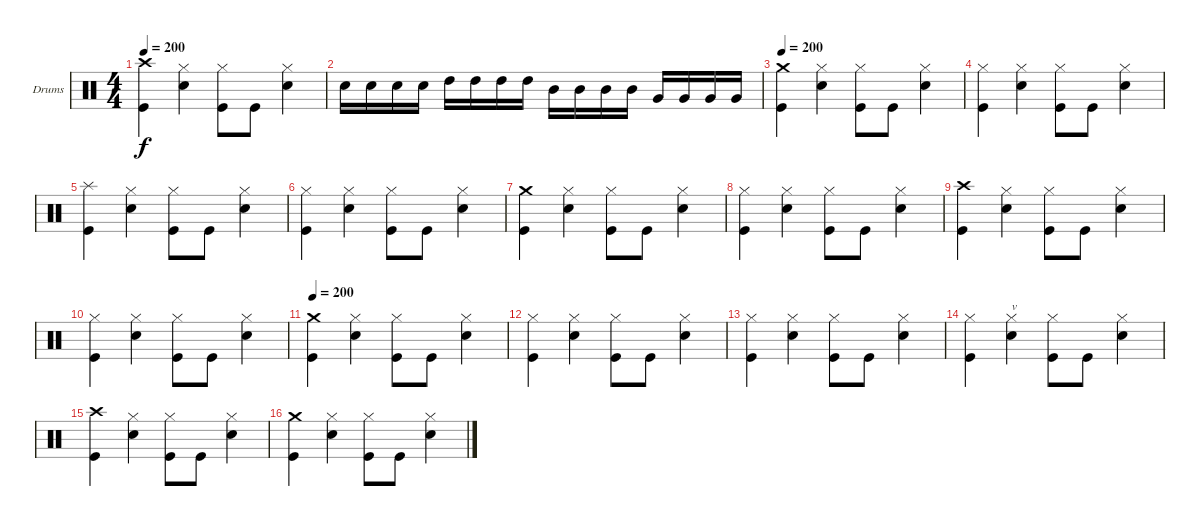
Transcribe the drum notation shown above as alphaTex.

\bracketExtendMode groupsimilarinstruments
\firstSystemTrackNameOrientation horizontal
\otherSystemsTrackNameOrientation horizontal
\track ("Drumkit" "Drums") {instrument percussion}
\staff {score}
\articulation defaults
\ts (4 4)
\tempo 200
\clef neutral
\ks c
("Crash high (hit)" "Kick (hit)").4{dy f} ("Hi-Hat (closed)" "Snare (hit) 2").4 ("Hi-Hat (closed)" "Kick (hit)").8 "Kick (hit)".8 ("Hi-Hat (closed)" "Snare (hit) 2").4 |
"Snare (hit) 2".16 "Snare (hit) 2".16 "Snare (hit) 2".16 "Snare (hit) 2".16 "High Tom (hit)".16 "High Tom (hit)".16 "High Tom (hit)".16 "High Tom (hit)".16 "Mid Tom (hit)".16 "Mid Tom (hit)".16 "Mid Tom (hit)".16 "Mid Tom (hit)".16 "Very Low Tom (hit)".16 "Very Low Tom (hit)".16 "Very Low Tom (hit)".16 "Very Low Tom (hit)".16 |
\tempo 200
("Crash medium (hit)" "Kick (hit)").4 ("Hi-Hat (closed)" "Snare (hit) 2").4 ("Hi-Hat (closed)" "Kick (hit)").8 "Kick (hit)".8 ("Hi-Hat (closed)" "Snare (hit) 2").4 |
("Hi-Hat (closed)" "Kick (hit)").4 ("Hi-Hat (closed)" "Snare (hit) 2").4 ("Hi-Hat (closed)" "Kick (hit)").8 "Kick (hit)".8 ("Hi-Hat (closed)" "Snare (hit) 2").4 |
("Splash (hit)" "Kick (hit)").4 ("Hi-Hat (closed)" "Snare (hit) 2").4 ("Hi-Hat (closed)" "Kick (hit)").8 "Kick (hit)".8 ("Hi-Hat (closed)" "Snare (hit) 2").4 |
("Hi-Hat (closed)" "Kick (hit)").4 ("Hi-Hat (closed)" "Snare (hit) 2").4 ("Hi-Hat (closed)" "Kick (hit)").8 "Kick (hit)".8 ("Hi-Hat (closed)" "Snare (hit) 2").4 |
("Crash medium (hit)" "Kick (hit)").4 ("Hi-Hat (closed)" "Snare (hit) 2").4 ("Hi-Hat (closed)" "Kick (hit)").8 "Kick (hit)".8 ("Hi-Hat (closed)" "Snare (hit) 2").4 |
("Hi-Hat (closed)" "Kick (hit)").4 ("Hi-Hat (closed)" "Snare (hit) 2").4 ("Hi-Hat (closed)" "Kick (hit)").8 "Kick (hit)".8 ("Hi-Hat (closed)" "Snare (hit) 2").4 |
("Crash high (hit)" "Kick (hit)").4 ("Hi-Hat (closed)" "Snare (hit) 2").4 ("Hi-Hat (closed)" "Kick (hit)").8 "Kick (hit)".8 ("Hi-Hat (closed)" "Snare (hit) 2").4 |
("Hi-Hat (closed)" "Kick (hit)").4 ("Hi-Hat (closed)" "Snare (hit) 2").4 ("Hi-Hat (closed)" "Kick (hit)").8 "Kick (hit)".8 ("Hi-Hat (closed)" "Snare (hit) 2").4 |
\tempo 200
("Crash medium (hit)" "Kick (hit)").4 ("Hi-Hat (closed)" "Snare (hit) 2").4 ("Hi-Hat (closed)" "Kick (hit)").8 "Kick (hit)".8 ("Hi-Hat (closed)" "Snare (hit) 2").4 |
("Hi-Hat (closed)" "Kick (hit)").4 ("Hi-Hat (closed)" "Snare (hit) 2").4 ("Hi-Hat (closed)" "Kick (hit)").8 "Kick (hit)".8 ("Hi-Hat (closed)" "Snare (hit) 2").4 |
("Hi-Hat (closed)" "Kick (hit)").4 ("Hi-Hat (closed)" "Snare (hit) 2").4 ("Hi-Hat (closed)" "Kick (hit)").8 "Kick (hit)".8 ("Hi-Hat (closed)" "Snare (hit) 2").4 |
("Hi-Hat (closed)" "Kick (hit)").4 ("Hi-Hat (closed)" "Snare (hit) 2").4{txt "v"} ("Hi-Hat (closed)" "Kick (hit)").8 "Kick (hit)".8 ("Hi-Hat (closed)" "Snare (hit) 2").4 |
("Crash high (hit)" "Kick (hit)").4 ("Hi-Hat (closed)" "Snare (hit) 2").4 ("Hi-Hat (closed)" "Kick (hit)").8 "Kick (hit)".8 ("Hi-Hat (closed)" "Snare (hit) 2").4 |
("Crash medium (hit)" "Kick (hit)").4 ("Hi-Hat (closed)" "Snare (hit) 2").4 ("Hi-Hat (closed)" "Kick (hit)").8 "Kick (hit)".8 ("Hi-Hat (closed)" "Snare (hit) 2").4
